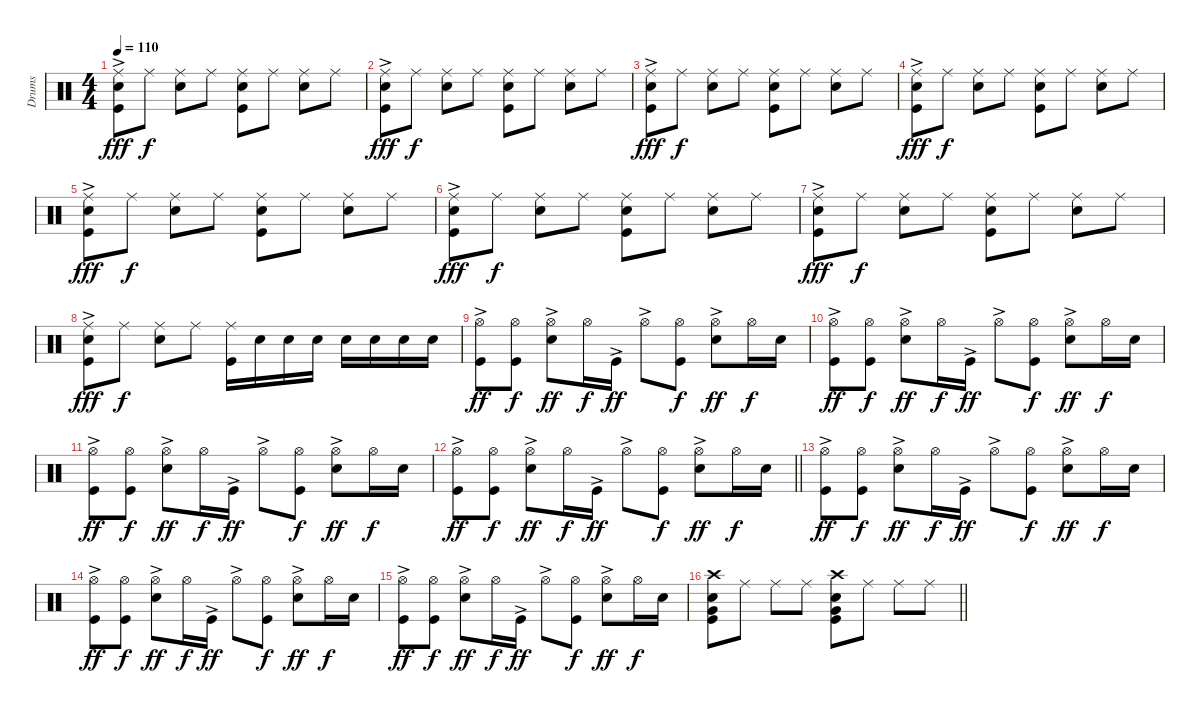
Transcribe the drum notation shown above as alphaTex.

\track ("Drums" "Drums") {instrument percussion}
\staff {score}
\articulation defaults
\ts (4 4)
\tempo 110
\clef neutral
\ks c
("Ride (middle)"{ac} "Snare (hit) 2" "Kick (hit)").8{dy fff} "Ride (middle)".8{dy f} ("Ride (middle)" "Snare (hit) 2").8 "Ride (middle)".8 ("Ride (middle)" "Snare (hit) 2" "Kick (hit)").8 "Ride (middle)".8 ("Ride (middle)" "Snare (hit) 2").8 "Ride (middle)".8 |
("Ride (middle)"{ac} "Snare (hit) 2" "Kick (hit)").8{dy fff} "Ride (middle)".8{dy f} ("Ride (middle)" "Snare (hit) 2").8 "Ride (middle)".8 ("Ride (middle)" "Snare (hit) 2" "Kick (hit)").8 "Ride (middle)".8 ("Ride (middle)" "Snare (hit) 2").8 "Ride (middle)".8 |
("Ride (middle)"{ac} "Snare (hit) 2" "Kick (hit)").8{dy fff} "Ride (middle)".8{dy f} ("Ride (middle)" "Snare (hit) 2").8 "Ride (middle)".8 ("Ride (middle)" "Snare (hit) 2" "Kick (hit)").8 "Ride (middle)".8 ("Ride (middle)" "Snare (hit) 2").8 "Ride (middle)".8 |
("Ride (middle)"{ac} "Snare (hit) 2" "Kick (hit)").8{dy fff} "Ride (middle)".8{dy f} ("Ride (middle)" "Snare (hit) 2").8 "Ride (middle)".8 ("Ride (middle)" "Snare (hit) 2" "Kick (hit)").8 "Ride (middle)".8 ("Ride (middle)" "Snare (hit) 2").8 "Ride (middle)".8 |
("Ride (middle)"{ac} "Snare (hit) 2" "Kick (hit)").8{dy fff} "Ride (middle)".8{dy f} ("Ride (middle)" "Snare (hit) 2").8 "Ride (middle)".8 ("Ride (middle)" "Snare (hit) 2" "Kick (hit)").8 "Ride (middle)".8 ("Ride (middle)" "Snare (hit) 2").8 "Ride (middle)".8 |
("Ride (middle)"{ac} "Snare (hit) 2" "Kick (hit)").8{dy fff} "Ride (middle)".8{dy f} ("Ride (middle)" "Snare (hit) 2").8 "Ride (middle)".8 ("Ride (middle)" "Snare (hit) 2" "Kick (hit)").8 "Ride (middle)".8 ("Ride (middle)" "Snare (hit) 2").8 "Ride (middle)".8 |
("Ride (middle)"{ac} "Snare (hit) 2" "Kick (hit)").8{dy fff} "Ride (middle)".8{dy f} ("Ride (middle)" "Snare (hit) 2").8 "Ride (middle)".8 ("Ride (middle)" "Snare (hit) 2" "Kick (hit)").8 "Ride (middle)".8 ("Ride (middle)" "Snare (hit) 2").8 "Ride (middle)".8 |
("Ride (middle)"{ac} "Snare (hit) 2" "Kick (hit)").8{dy fff} "Ride (middle)".8{dy f} ("Ride (middle)" "Snare (hit) 2").8 "Ride (middle)".8 ("Ride (middle)" "Kick (hit)").16 "Snare (hit) 2".16 "Snare (hit) 2".16 "Snare (hit) 2".16 "Snare (hit) 2".16 "Snare (hit) 2".16 "Snare (hit) 2".16 "Snare (hit) 2".16 |
("Hi-Hat (open)"{ac} "Kick (hit)"{ac}).8{dy ff} ("Hi-Hat (open)" "Kick (hit)").8{dy f} ("Hi-Hat (open)"{ac} "Snare (hit) 2").8{dy ff} "Hi-Hat (open)".16{dy f} "Kick (hit)"{ac}.16{dy ff} "Hi-Hat (open)"{ac}.8 ("Hi-Hat (open)" "Kick (hit)").8{dy f} ("Hi-Hat (open)"{ac} "Snare (hit) 2").8{dy ff} "Hi-Hat (open)".16{dy f} "Snare (hit) 2".16 |
("Hi-Hat (open)"{ac} "Kick (hit)"{ac}).8{dy ff} ("Hi-Hat (open)" "Kick (hit)").8{dy f} ("Hi-Hat (open)"{ac} "Snare (hit) 2").8{dy ff} "Hi-Hat (open)".16{dy f} "Kick (hit)"{ac}.16{dy ff} "Hi-Hat (open)"{ac}.8 ("Hi-Hat (open)" "Kick (hit)").8{dy f} ("Hi-Hat (open)"{ac} "Snare (hit) 2").8{dy ff} "Hi-Hat (open)".16{dy f} "Snare (hit) 2".16 |
("Hi-Hat (open)"{ac} "Kick (hit)"{ac}).8{dy ff} ("Hi-Hat (open)" "Kick (hit)").8{dy f} ("Hi-Hat (open)"{ac} "Snare (hit) 2").8{dy ff} "Hi-Hat (open)".16{dy f} "Kick (hit)"{ac}.16{dy ff} "Hi-Hat (open)"{ac}.8 ("Hi-Hat (open)" "Kick (hit)").8{dy f} ("Hi-Hat (open)"{ac} "Snare (hit) 2").8{dy ff} "Hi-Hat (open)".16{dy f} "Snare (hit) 2".16 |
\barLineRight lightlight
("Hi-Hat (open)"{ac} "Kick (hit)"{ac}).8{dy ff} ("Hi-Hat (open)" "Kick (hit)").8{dy f} ("Hi-Hat (open)"{ac} "Snare (hit) 2").8{dy ff} "Hi-Hat (open)".16{dy f} "Kick (hit)"{ac}.16{dy ff} "Hi-Hat (open)"{ac}.8 ("Hi-Hat (open)" "Kick (hit)").8{dy f} ("Hi-Hat (open)"{ac} "Snare (hit) 2").8{dy ff} "Hi-Hat (open)".16{dy f} "Snare (hit) 2".16 |
("Hi-Hat (open)"{ac} "Kick (hit)"{ac}).8{dy ff} ("Hi-Hat (open)" "Kick (hit)").8{dy f} ("Hi-Hat (open)"{ac} "Snare (hit) 2").8{dy ff} "Hi-Hat (open)".16{dy f} "Kick (hit)"{ac}.16{dy ff} "Hi-Hat (open)"{ac}.8 ("Hi-Hat (open)" "Kick (hit)").8{dy f} ("Hi-Hat (open)"{ac} "Snare (hit) 2").8{dy ff} "Hi-Hat (open)".16{dy f} "Snare (hit) 2".16 |
("Hi-Hat (open)"{ac} "Kick (hit)"{ac}).8{dy ff} ("Hi-Hat (open)" "Kick (hit)").8{dy f} ("Hi-Hat (open)"{ac} "Snare (hit) 2").8{dy ff} "Hi-Hat (open)".16{dy f} "Kick (hit)"{ac}.16{dy ff} "Hi-Hat (open)"{ac}.8 ("Hi-Hat (open)" "Kick (hit)").8{dy f} ("Hi-Hat (open)"{ac} "Snare (hit) 2").8{dy ff} "Hi-Hat (open)".16{dy f} "Snare (hit) 2".16 |
("Hi-Hat (open)"{ac} "Kick (hit)"{ac}).8{dy ff} ("Hi-Hat (open)" "Kick (hit)").8{dy f} ("Hi-Hat (open)"{ac} "Snare (hit) 2").8{dy ff} "Hi-Hat (open)".16{dy f} "Kick (hit)"{ac}.16{dy ff} "Hi-Hat (open)"{ac}.8 ("Hi-Hat (open)" "Kick (hit)").8{dy f} ("Hi-Hat (open)"{ac} "Snare (hit) 2").8{dy ff} "Hi-Hat (open)".16{dy f} "Snare (hit) 2".16 |
\barLineRight lightlight
("Crash high (hit)" "Snare (hit) 2" "Very Low Tom (hit)" "Kick (hit)").8 "Ride (middle)".8 "Ride (middle)".8 "Ride (middle)".8 ("Crash high (hit)" "Snare (hit) 2" "Very Low Tom (hit)" "Kick (hit)").8 "Ride (middle)".8 "Ride (middle)".8 "Ride (middle)".8
